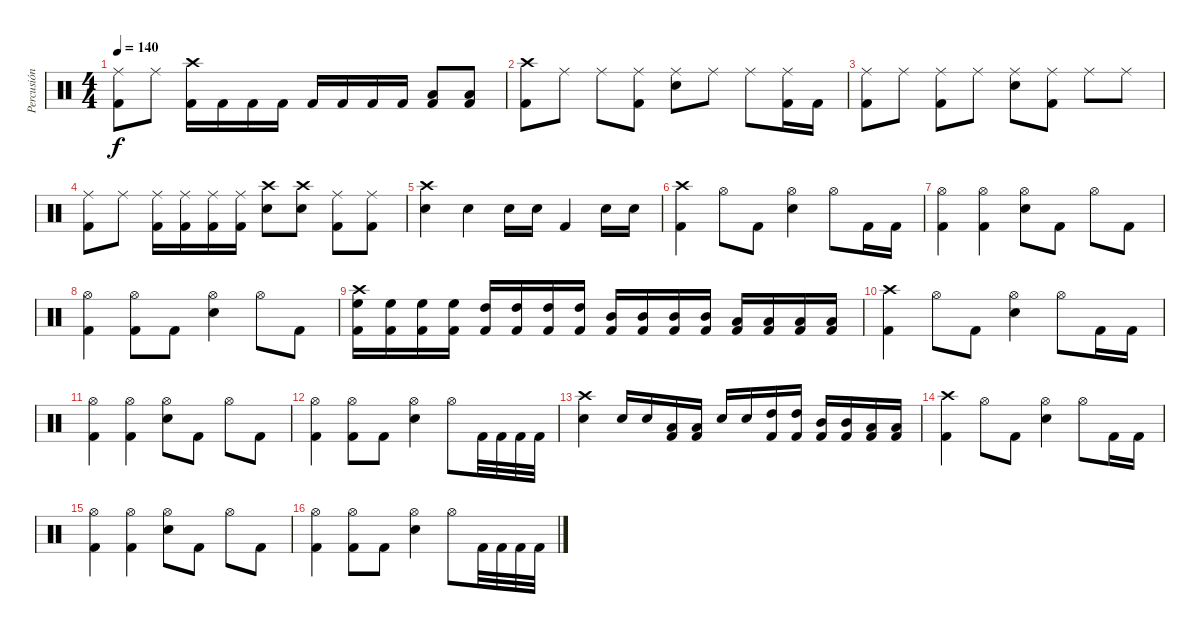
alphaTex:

\track ("Percusión" "Percusión") {instrument percussion}
\staff {score}
\articulation defaults
\ts (4 4)
\tempo 140
\clef neutral
\ks c
("Kick (hit) 2" "Ride (middle)").8{dy f} "Ride (middle)".8 ("Kick (hit) 2" "Crash high (hit)").16 "Kick (hit) 2".16 "Kick (hit) 2".16 "Kick (hit) 2".16 "Kick (hit) 2".16 "Kick (hit) 2".16 "Kick (hit) 2".16 "Kick (hit) 2".16 ("Kick (hit) 2" "Low Tom (hit)").8 ("Kick (hit) 2" "Low Tom (hit)").8 |
("Kick (hit) 2" "Crash high (hit)").8 "Ride (middle)".8 "Ride (middle)".8 ("Kick (hit) 2" "Ride (middle)").8 ("Snare (hit) 2" "Ride (middle)").8 "Ride (middle)".8 "Ride (middle)".8 ("Kick (hit) 2" "Ride (middle)").16 "Kick (hit) 2".16 |
("Kick (hit) 2" "Ride (middle)").8 "Ride (middle)".8 ("Kick (hit) 2" "Ride (middle)").8 "Ride (middle)".8 ("Snare (hit) 2" "Ride (middle)").8 ("Kick (hit) 2" "Ride (middle)").8 "Ride (middle)".8 "Ride (middle)".8 |
("Kick (hit) 2" "Ride (middle)").8 "Ride (middle)".8 ("Kick (hit) 2" "Ride (middle)").16 ("Kick (hit) 2" "Ride (middle)").16 ("Kick (hit) 2" "Ride (middle)").16 ("Kick (hit) 2" "Ride (middle)").16 ("Snare (hit) 2" "Crash high (hit)").8 ("Snare (hit) 2" "Crash high (hit)").8 ("Kick (hit) 2" "Ride (middle)").8 ("Kick (hit) 2" "Ride (middle)").8 |
("Snare (hit) 2" "Crash high (hit)").4 "Snare (hit) 2".4 "Snare (hit) 2".16 "Snare (hit) 2".16 "Kick (hit) 2".4 "Snare (hit) 2".16 "Snare (hit) 2".16 |
("Kick (hit) 2" "Crash high (hit)").4 "Hi-Hat (open)".8 "Kick (hit) 2".8 ("Snare (hit) 2" "Hi-Hat (open)").4 "Hi-Hat (open)".8 "Kick (hit) 2".16 "Kick (hit) 2".16 |
("Kick (hit) 2" "Hi-Hat (open)").4 ("Kick (hit) 2" "Hi-Hat (open)").4 ("Snare (hit) 2" "Hi-Hat (open)").8 "Kick (hit) 2".8 "Hi-Hat (open)".8 "Kick (hit) 2".8 |
("Kick (hit) 2" "Hi-Hat (open)").4 ("Kick (hit) 2" "Hi-Hat (open)").8 "Kick (hit) 2".8 ("Snare (hit) 2" "Hi-Hat (open)").4 "Hi-Hat (open)".8 "Kick (hit) 2".8 |
("Kick (hit) 2" "Crash high (hit)" "High Floor Tom (hit)").16 ("Kick (hit) 2" "High Floor Tom (hit)").16 ("Kick (hit) 2" "High Floor Tom (hit)").16 ("Kick (hit) 2" "High Floor Tom (hit)").16 ("Kick (hit) 2" "High Tom (hit)").16 ("Kick (hit) 2" "High Tom (hit)").16 ("Kick (hit) 2" "High Tom (hit)").16 ("Kick (hit) 2" "High Tom (hit)").16 ("Kick (hit) 2" "Mid Tom (hit)").16 ("Kick (hit) 2" "Mid Tom (hit)").16 ("Kick (hit) 2" "Mid Tom (hit)").16 ("Kick (hit) 2" "Mid Tom (hit)").16 ("Kick (hit) 2" "Low Tom (hit)").16 ("Kick (hit) 2" "Low Tom (hit)").16 ("Kick (hit) 2" "Low Tom (hit)").16 ("Kick (hit) 2" "Low Tom (hit)").16 |
("Kick (hit) 2" "Crash high (hit)").4 "Hi-Hat (open)".8 "Kick (hit) 2".8 ("Snare (hit) 2" "Hi-Hat (open)").4 "Hi-Hat (open)".8 "Kick (hit) 2".16 "Kick (hit) 2".16 |
("Kick (hit) 2" "Hi-Hat (open)").4 ("Kick (hit) 2" "Hi-Hat (open)").4 ("Snare (hit) 2" "Hi-Hat (open)").8 "Kick (hit) 2".8 "Hi-Hat (open)".8 "Kick (hit) 2".8 |
("Kick (hit) 2" "Hi-Hat (open)").4 ("Kick (hit) 2" "Hi-Hat (open)").8 "Kick (hit) 2".8 ("Snare (hit) 2" "Hi-Hat (open)").4 "Hi-Hat (open)".8 "Kick (hit) 2".32 "Kick (hit) 2".32 "Kick (hit) 2".32 "Kick (hit) 2".32 |
("Snare (hit) 2" "Crash high (hit)").4 "Snare (hit) 2".16 "Snare (hit) 2".16 ("Kick (hit) 2" "Low Tom (hit)").16 ("Kick (hit) 2" "Low Tom (hit)").16 "Snare (hit) 2".16 "Snare (hit) 2".16 ("Kick (hit) 2" "High Tom (hit)").16 ("Kick (hit) 2" "High Tom (hit)").16 ("Kick (hit) 2" "Mid Tom (hit)").16 ("Kick (hit) 2" "Mid Tom (hit)").16 ("Kick (hit) 2" "Low Tom (hit)").16 ("Kick (hit) 2" "Low Tom (hit)").16 |
("Kick (hit) 2" "Crash high (hit)").4 "Hi-Hat (open)".8 "Kick (hit) 2".8 ("Snare (hit) 2" "Hi-Hat (open)").4 "Hi-Hat (open)".8 "Kick (hit) 2".16 "Kick (hit) 2".16 |
("Kick (hit) 2" "Hi-Hat (open)").4 ("Kick (hit) 2" "Hi-Hat (open)").4 ("Snare (hit) 2" "Hi-Hat (open)").8 "Kick (hit) 2".8 "Hi-Hat (open)".8 "Kick (hit) 2".8 |
("Kick (hit) 2" "Hi-Hat (open)").4 ("Kick (hit) 2" "Hi-Hat (open)").8 "Kick (hit) 2".8 ("Snare (hit) 2" "Hi-Hat (open)").4 "Hi-Hat (open)".8 "Kick (hit) 2".32 "Kick (hit) 2".32 "Kick (hit) 2".32 "Kick (hit) 2".32
